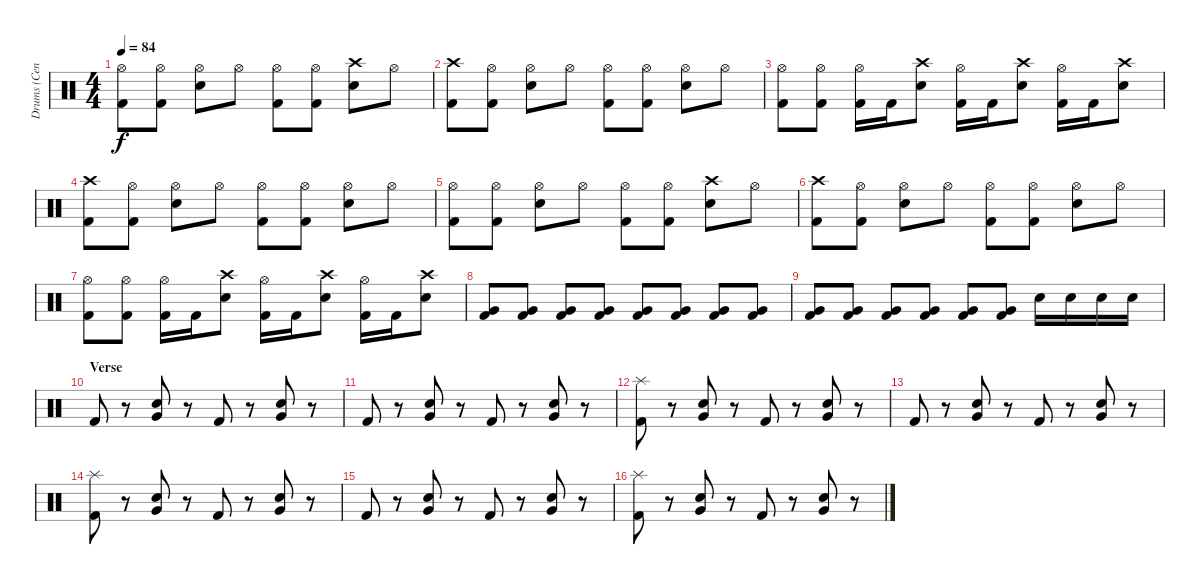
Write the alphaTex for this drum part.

\track ("Drums (Cenk)" "Drums (Cen") {instrument percussion}
\staff {score}
\articulation defaults
\ts (4 4)
\tempo 84
\clef neutral
\ks c
("Hi-Hat (open)" "Kick (hit) 2").8{dy f} ("Hi-Hat (open)" "Kick (hit) 2").8 ("Hi-Hat (open)" "Snare (hit) 2").8 "Hi-Hat (open)".8 ("Hi-Hat (open)" "Kick (hit) 2").8 ("Hi-Hat (open)" "Kick (hit) 2").8 ("Crash high (hit)" "Snare (hit) 2").8 "Hi-Hat (open)".8 |
("Crash high (hit)" "Kick (hit) 2").8 ("Hi-Hat (open)" "Kick (hit) 2").8 ("Hi-Hat (open)" "Snare (hit) 2").8 "Hi-Hat (open)".8 ("Hi-Hat (open)" "Kick (hit) 2").8 ("Hi-Hat (open)" "Kick (hit) 2").8 ("Hi-Hat (open)" "Snare (hit) 2").8 "Hi-Hat (open)".8 |
("Hi-Hat (open)" "Kick (hit) 2").8 ("Hi-Hat (open)" "Kick (hit) 2").8 ("Hi-Hat (open)" "Kick (hit) 2").16 "Kick (hit) 2".16 ("Crash high (hit)" "Snare (hit) 2").8 ("Hi-Hat (open)" "Kick (hit) 2").16 "Kick (hit) 2".16 ("Crash high (hit)" "Snare (hit) 2").8 ("Hi-Hat (open)" "Kick (hit) 2").16 "Kick (hit) 2".16 ("Crash high (hit)" "Snare (hit) 2").8 |
("Crash high (hit)" "Kick (hit) 2").8 ("Hi-Hat (open)" "Kick (hit) 2").8 ("Hi-Hat (open)" "Snare (hit) 2").8 "Hi-Hat (open)".8 ("Hi-Hat (open)" "Kick (hit) 2").8 ("Hi-Hat (open)" "Kick (hit) 2").8 ("Hi-Hat (open)" "Snare (hit) 2").8 "Hi-Hat (open)".8 |
("Hi-Hat (open)" "Kick (hit) 2").8 ("Hi-Hat (open)" "Kick (hit) 2").8 ("Hi-Hat (open)" "Snare (hit) 2").8 "Hi-Hat (open)".8 ("Hi-Hat (open)" "Kick (hit) 2").8 ("Hi-Hat (open)" "Kick (hit) 2").8 ("Crash high (hit)" "Snare (hit) 2").8 "Hi-Hat (open)".8 |
("Crash high (hit)" "Kick (hit) 2").8 ("Hi-Hat (open)" "Kick (hit) 2").8 ("Hi-Hat (open)" "Snare (hit) 2").8 "Hi-Hat (open)".8 ("Hi-Hat (open)" "Kick (hit) 2").8 ("Hi-Hat (open)" "Kick (hit) 2").8 ("Hi-Hat (open)" "Snare (hit) 2").8 "Hi-Hat (open)".8 |
("Hi-Hat (open)" "Kick (hit) 2").8 ("Hi-Hat (open)" "Kick (hit) 2").8 ("Hi-Hat (open)" "Kick (hit) 2").16 "Kick (hit) 2".16 ("Crash high (hit)" "Snare (hit) 2").8 ("Hi-Hat (open)" "Kick (hit) 2").16 "Kick (hit) 2".16 ("Crash high (hit)" "Snare (hit) 2").8 ("Hi-Hat (open)" "Kick (hit) 2").16 "Kick (hit) 2".16 ("Crash high (hit)" "Snare (hit) 2").8 |
("Very Low Tom (hit)" "Kick (hit) 2").8 ("Very Low Tom (hit)" "Kick (hit) 2").8 ("Very Low Tom (hit)" "Kick (hit) 2").8 ("Very Low Tom (hit)" "Kick (hit) 2").8 ("Very Low Tom (hit)" "Kick (hit) 2").8 ("Very Low Tom (hit)" "Kick (hit) 2").8 ("Very Low Tom (hit)" "Kick (hit) 2").8 ("Very Low Tom (hit)" "Kick (hit) 2").8 |
("Very Low Tom (hit)" "Kick (hit) 2").8 ("Very Low Tom (hit)" "Kick (hit) 2").8 ("Very Low Tom (hit)" "Kick (hit) 2").8 ("Very Low Tom (hit)" "Kick (hit) 2").8 ("Very Low Tom (hit)" "Kick (hit) 2").8 ("Very Low Tom (hit)" "Kick (hit) 2").8 "Snare (hit) 2".16 "Snare (hit) 2".16 "Snare (hit) 2".16 "Snare (hit) 2".16 |
\section ("" "Verse")
"Kick (hit) 2".8 r.8 ("Very Low Tom (hit)" "Snare (hit) 2").8 r.8 "Kick (hit) 2".8 r.8 ("Very Low Tom (hit)" "Snare (hit) 2").8 r.8 |
"Kick (hit) 2".8 r.8 ("Very Low Tom (hit)" "Snare (hit) 2").8 r.8 "Kick (hit) 2".8 r.8 ("Very Low Tom (hit)" "Snare (hit) 2").8 r.8 |
("Splash (hit)" "Kick (hit) 2").8 r.8 ("Very Low Tom (hit)" "Snare (hit) 2").8 r.8 "Kick (hit) 2".8 r.8 ("Very Low Tom (hit)" "Snare (hit) 2").8 r.8 |
"Kick (hit) 2".8 r.8 ("Very Low Tom (hit)" "Snare (hit) 2").8 r.8 "Kick (hit) 2".8 r.8 ("Very Low Tom (hit)" "Snare (hit) 2").8 r.8 |
("Splash (hit)" "Kick (hit) 2").8 r.8 ("Very Low Tom (hit)" "Snare (hit) 2").8 r.8 "Kick (hit) 2".8 r.8 ("Very Low Tom (hit)" "Snare (hit) 2").8 r.8 |
"Kick (hit) 2".8 r.8 ("Very Low Tom (hit)" "Snare (hit) 2").8 r.8 "Kick (hit) 2".8 r.8 ("Very Low Tom (hit)" "Snare (hit) 2").8 r.8 |
("Splash (hit)" "Kick (hit) 2").8 r.8 ("Very Low Tom (hit)" "Snare (hit) 2").8 r.8 "Kick (hit) 2".8 r.8 ("Very Low Tom (hit)" "Snare (hit) 2").8 r.8
